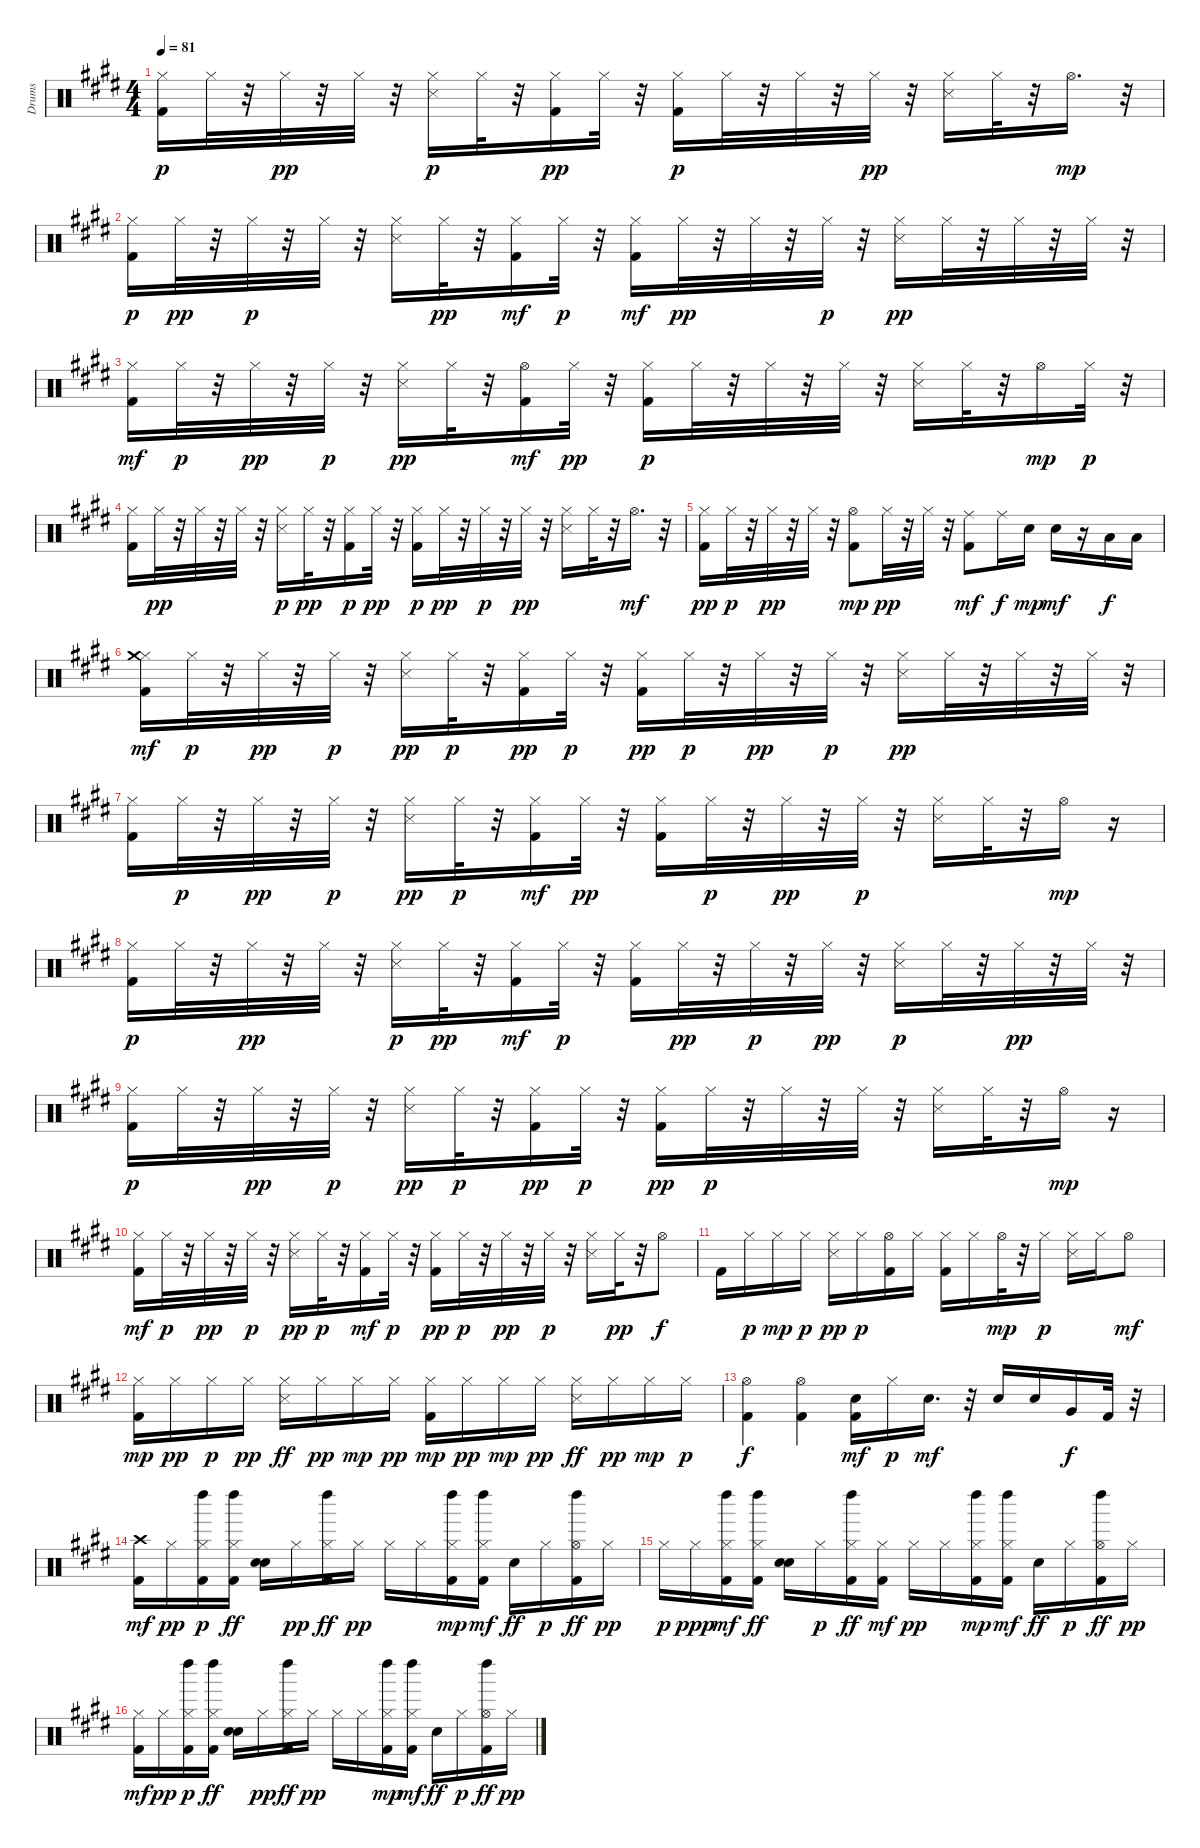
\track ("Drums" "Drums") {instrument percussion}
\staff {score}
\articulation defaults
\ts (4 4)
\tempo 81
\clef neutral
\ks c#minor
("Hi-Hat (closed)" "Kick (hit) 2").16{dy p} "Hi-Hat (closed)".32 r.32 "Hi-Hat (closed)".32{dy pp} r.32 "Hi-Hat (closed)".32 r.32 ("Snare (side stick) 3" "Hi-Hat (closed)").16{dy p} "Hi-Hat (closed)".32 r.32 ("Hi-Hat (closed)" "Kick (hit) 2").16{dy pp} "Hi-Hat (closed)".32 r.32 ("Hi-Hat (closed)" "Kick (hit) 2").16{dy p} "Hi-Hat (closed)".32 r.32 "Hi-Hat (closed)".32 r.32 "Hi-Hat (closed)".32{dy pp} r.32 ("Snare (side stick) 3" "Hi-Hat (closed)").16 "Hi-Hat (closed)".32 r.32 "Hi-Hat (open)".16{d dy mp} r.32 |
("Hi-Hat (closed)" "Kick (hit) 2").16{dy p} "Hi-Hat (closed)".32{dy pp} r.32 "Hi-Hat (closed)".32{dy p} r.32 "Hi-Hat (closed)".32 r.32 ("Snare (side stick) 3" "Hi-Hat (closed)").16 "Hi-Hat (closed)".32{dy pp} r.32 ("Hi-Hat (closed)" "Kick (hit) 2").16{dy mf} "Hi-Hat (closed)".32{dy p} r.32 ("Hi-Hat (closed)" "Kick (hit) 2").16{dy mf} "Hi-Hat (closed)".32{dy pp} r.32 "Hi-Hat (closed)".32 r.32 "Hi-Hat (closed)".32{dy p} r.32 ("Snare (side stick) 3" "Hi-Hat (closed)").16{dy pp} "Hi-Hat (closed)".32 r.32 "Hi-Hat (closed)".32 r.32 "Hi-Hat (closed)".32 r.32 |
("Hi-Hat (closed)" "Kick (hit) 2").16{dy mf} "Hi-Hat (closed)".32{dy p} r.32 "Hi-Hat (closed)".32{dy pp} r.32 "Hi-Hat (closed)".32{dy p} r.32 ("Snare (side stick) 3" "Hi-Hat (closed)").16{dy pp} "Hi-Hat (closed)".32 r.32 ("Hi-Hat (open)" "Kick (hit) 2").16{dy mf} "Hi-Hat (closed)".32{dy pp} r.32 ("Hi-Hat (closed)" "Kick (hit) 2").16{dy p} "Hi-Hat (closed)".32 r.32 "Hi-Hat (closed)".32 r.32 "Hi-Hat (closed)".32 r.32 ("Snare (side stick) 3" "Hi-Hat (closed)").16 "Hi-Hat (closed)".32 r.32 "Hi-Hat (open)".16{dy mp} "Hi-Hat (closed)".32{dy p} r.32 |
\ks e
("Hi-Hat (closed)" "Kick (hit) 2").16 "Hi-Hat (closed)".32{dy pp} r.32 "Hi-Hat (closed)".32 r.32 "Hi-Hat (closed)".32 r.32 ("Snare (side stick) 3" "Hi-Hat (closed)").16{dy p} "Hi-Hat (closed)".32{dy pp} r.32 ("Hi-Hat (closed)" "Kick (hit) 2").16{dy p} "Hi-Hat (closed)".32{dy pp} r.32 ("Hi-Hat (closed)" "Kick (hit) 2").16{dy p} "Hi-Hat (closed)".32{dy pp} r.32 "Hi-Hat (closed)".32{dy p} r.32 "Hi-Hat (closed)".32{dy pp} r.32 ("Snare (side stick) 3" "Hi-Hat (closed)").16 "Hi-Hat (closed)".32 r.32 "Hi-Hat (open)".16{d dy mf} r.32 |
\ks c#minor
("Hi-Hat (closed)" "Kick (hit) 2").16{dy pp} "Hi-Hat (closed)".32{dy p} r.32 "Hi-Hat (closed)".32{dy pp} r.32 "Hi-Hat (closed)".32 r.32 ("Hi-Hat (open)" "Kick (hit) 2").8{dy mp} "Hi-Hat (closed)".32{dy pp} r.32 "Hi-Hat (closed)".32 r.32 ("Kick (hit) 2" "Ride (middle)").8{dy mf} "Ride (middle)".16{dy f} "Snare (hit) 2".16{dy mp} "Snare (hit) 2".16{dy mf} r.16 "Low Tom (hit)".16{dy f} "Low Tom (hit)".16 |
("Hi-Hat (closed)" "Kick (hit) 2" "Crash medium (hit)").16{dy mf} "Hi-Hat (closed)".32{dy p} r.32 "Hi-Hat (closed)".32{dy pp} r.32 "Hi-Hat (closed)".32{dy p} r.32 ("Snare (side stick) 3" "Hi-Hat (closed)").16{dy pp} "Hi-Hat (closed)".32{dy p} r.32 ("Hi-Hat (closed)" "Kick (hit) 2").16{dy pp} "Hi-Hat (closed)".32{dy p} r.32 ("Hi-Hat (closed)" "Kick (hit) 2").16{dy pp} "Hi-Hat (closed)".32{dy p} r.32 "Hi-Hat (closed)".32{dy pp} r.32 "Hi-Hat (closed)".32{dy p} r.32 ("Snare (side stick) 3" "Hi-Hat (closed)").16{dy pp} "Hi-Hat (closed)".32 r.32 "Hi-Hat (closed)".32 r.32 "Hi-Hat (closed)".32 r.32 |
("Hi-Hat (closed)" "Kick (hit) 2").16 "Hi-Hat (closed)".32{dy p} r.32 "Hi-Hat (closed)".32{dy pp} r.32 "Hi-Hat (closed)".32{dy p} r.32 ("Snare (side stick) 3" "Hi-Hat (closed)").16{dy pp} "Hi-Hat (closed)".32{dy p} r.32 ("Hi-Hat (closed)" "Kick (hit) 2").16{dy mf} "Hi-Hat (closed)".32{dy pp} r.32 ("Hi-Hat (closed)" "Kick (hit) 2").16 "Hi-Hat (closed)".32{dy p} r.32 "Hi-Hat (closed)".32{dy pp} r.32 "Hi-Hat (closed)".32{dy p} r.32 ("Snare (side stick) 3" "Hi-Hat (closed)").16 "Hi-Hat (closed)".32 r.32 "Hi-Hat (open)".16{dy mp} r.16 |
\ks e
("Hi-Hat (closed)" "Kick (hit) 2").16{dy p} "Hi-Hat (closed)".32 r.32 "Hi-Hat (closed)".32{dy pp} r.32 "Hi-Hat (closed)".32 r.32 ("Snare (side stick) 3" "Hi-Hat (closed)").16{dy p} "Hi-Hat (closed)".32{dy pp} r.32 ("Hi-Hat (closed)" "Kick (hit) 2").16{dy mf} "Hi-Hat (closed)".32{dy p} r.32 ("Hi-Hat (closed)" "Kick (hit) 2").16 "Hi-Hat (closed)".32{dy pp} r.32 "Hi-Hat (closed)".32{dy p} r.32 "Hi-Hat (closed)".32{dy pp} r.32 ("Snare (side stick) 3" "Hi-Hat (closed)").16{dy p} "Hi-Hat (closed)".32 r.32 "Hi-Hat (closed)".32{dy pp} r.32 "Hi-Hat (closed)".32 r.32 |
\ks c#minor
("Hi-Hat (closed)" "Kick (hit) 2").16{dy p} "Hi-Hat (closed)".32 r.32 "Hi-Hat (closed)".32{dy pp} r.32 "Hi-Hat (closed)".32{dy p} r.32 ("Snare (side stick) 3" "Hi-Hat (closed)").16{dy pp} "Hi-Hat (closed)".32{dy p} r.32 ("Hi-Hat (closed)" "Kick (hit) 2").16{dy pp} "Hi-Hat (closed)".32{dy p} r.32 ("Hi-Hat (closed)" "Kick (hit) 2").16{dy pp} "Hi-Hat (closed)".32{dy p} r.32 "Hi-Hat (closed)".32 r.32 "Hi-Hat (closed)".32 r.32 ("Snare (side stick) 3" "Hi-Hat (closed)").16 "Hi-Hat (closed)".32 r.32 "Hi-Hat (open)".16{dy mp} r.16 |
("Hi-Hat (closed)" "Kick (hit) 2").16{dy mf} "Hi-Hat (closed)".32{dy p} r.32 "Hi-Hat (closed)".32{dy pp} r.32 "Hi-Hat (closed)".32{dy p} r.32 ("Snare (side stick) 3" "Hi-Hat (closed)").16{dy pp} "Hi-Hat (closed)".32{dy p} r.32 ("Hi-Hat (closed)" "Kick (hit) 2").16{dy mf} "Hi-Hat (closed)".32{dy p} r.32 ("Hi-Hat (closed)" "Kick (hit) 2").16{dy pp} "Hi-Hat (closed)".32{dy p} r.32 "Hi-Hat (closed)".32{dy pp} r.32 "Hi-Hat (closed)".32{dy p} r.32 ("Snare (side stick) 3" "Hi-Hat (closed)").16 "Hi-Hat (closed)".32{dy pp} r.32 "Hi-Hat (open)".8{dy f} |
"Kick (hit) 2".16 "Hi-Hat (closed)".16{dy p} "Hi-Hat (closed)".16{dy mp} "Hi-Hat (closed)".16{dy p} ("Snare (side stick) 3" "Hi-Hat (closed)").16{dy pp} "Hi-Hat (closed)".16{dy p} ("Hi-Hat (open)" "Kick (hit) 2").16 "Hi-Hat (closed)".16 ("Kick (hit) 2" "Hi-Hat (closed)").16 "Hi-Hat (closed)".16 "Hi-Hat (open)".32{dy mp} r.32 "Hi-Hat (closed)".16{dy p} ("Snare (side stick) 3" "Hi-Hat (closed)").16 "Hi-Hat (closed)".16 "Hi-Hat (open)".8{dy mf} |
\ks e
("Kick (hit) 2" "Hi-Hat (closed)").16{dy mp} "Hi-Hat (closed)".16{dy pp} "Hi-Hat (closed)".16{dy p} "Hi-Hat (closed)".16{dy pp} ("Hi-Hat (closed)" "Snare (side stick) 3").16{dy ff} "Hi-Hat (closed)".16{dy pp} "Hi-Hat (closed)".16{dy mp} "Hi-Hat (closed)".16{dy pp} ("Hi-Hat (closed)" "Kick (hit) 2").16{dy mp} "Hi-Hat (closed)".16{dy pp} "Hi-Hat (closed)".16{dy mp} "Hi-Hat (closed)".16{dy pp} ("Hi-Hat (closed)" "Snare (side stick) 3").16{dy ff} "Hi-Hat (closed)".16{dy pp} "Hi-Hat (closed)".16{dy mp} "Hi-Hat (closed)".16{dy p} |
\ks c#minor
("Kick (hit) 2" "Hi-Hat (open)").4{dy f} ("Kick (hit) 2" "Hi-Hat (open)").4 ("Kick (hit) 2" "Snare (hit) 2").16{dy mf} "Hi-Hat (closed)".16{dy p} "Snare (hit) 2".16{d dy mf} r.32 "Snare (hit) 2".16 "Snare (hit) 2".16 "Very Low Tom (hit)".16{dy f} "Kick (hit) 2".32 r.32 |
("Crash high (hit)" "Kick (hit) 2").16{dy mf} "Hi-Hat (closed)".16{dy pp} ("Hi-Hat (closed)" "Kick (hit) 2" "Left Maraca (hit)").16{dy p} ("Hi-Hat (closed)" "Kick (hit) 2" "Left Maraca (hit)").16{dy ff} ("Snare (hit) 2" "Hand Clap (hit)").16 "Hi-Hat (closed)".16{dy pp} ("Hi-Hat (closed)" "Kick (hit) 2" "Left Maraca (hit)").16{dy ff} "Hi-Hat (closed)".16{dy pp} "Hi-Hat (closed)".16 "Hi-Hat (closed)".16 ("Hi-Hat (closed)" "Kick (hit) 2" "Left Maraca (hit)").16{dy mp} ("Hi-Hat (closed)" "Kick (hit) 2" "Left Maraca (hit)").16{dy mf} "Snare (hit) 2".16{dy ff} "Hi-Hat (closed)".16{dy p} ("Hi-Hat (open)" "Kick (hit) 2" "Left Maraca (hit)").16{dy ff} "Hi-Hat (closed)".16{dy pp} |
"Hi-Hat (closed)".16{dy p} "Hi-Hat (closed)".16{dy ppp} ("Hi-Hat (closed)" "Kick (hit) 2" "Left Maraca (hit)").16{dy mf} ("Hi-Hat (closed)" "Kick (hit) 2" "Left Maraca (hit)").16{dy ff} ("Snare (hit) 2" "Hand Clap (hit)").16 "Hi-Hat (closed)".16{dy p} ("Hi-Hat (closed)" "Kick (hit) 2" "Left Maraca (hit)").16{dy ff} ("Hi-Hat (closed)" "Kick (hit) 2").16{dy mf} "Hi-Hat (closed)".16{dy pp} "Hi-Hat (closed)".16 ("Hi-Hat (closed)" "Kick (hit) 2" "Left Maraca (hit)").16{dy mp} ("Hi-Hat (closed)" "Kick (hit) 2" "Left Maraca (hit)").16{dy mf} "Snare (hit) 2".16{dy ff} "Hi-Hat (closed)".16{dy p} ("Hi-Hat (open)" "Kick (hit) 2" "Left Maraca (hit)").16{dy ff} "Hi-Hat (closed)".16{dy pp} |
\ks e
("Hi-Hat (closed)" "Kick (hit) 2").16{dy mf} "Hi-Hat (closed)".16{dy pp} ("Hi-Hat (closed)" "Kick (hit) 2" "Left Maraca (hit)").16{dy p} ("Hi-Hat (closed)" "Kick (hit) 2" "Left Maraca (hit)").16{dy ff} ("Snare (hit) 2" "Hand Clap (hit)").16 "Hi-Hat (closed)".16{dy pp} ("Hi-Hat (closed)" "Kick (hit) 2" "Left Maraca (hit)").16{dy ff} "Hi-Hat (closed)".16{dy pp} "Hi-Hat (closed)".16 "Hi-Hat (closed)".16 ("Hi-Hat (closed)" "Kick (hit) 2" "Left Maraca (hit)").16{dy mp} ("Hi-Hat (closed)" "Kick (hit) 2" "Left Maraca (hit)").16{dy mf} "Snare (hit) 2".16{dy ff} "Hi-Hat (closed)".16{dy p} ("Hi-Hat (open)" "Kick (hit) 2" "Left Maraca (hit)").16{dy ff} "Hi-Hat (closed)".16{dy pp}
